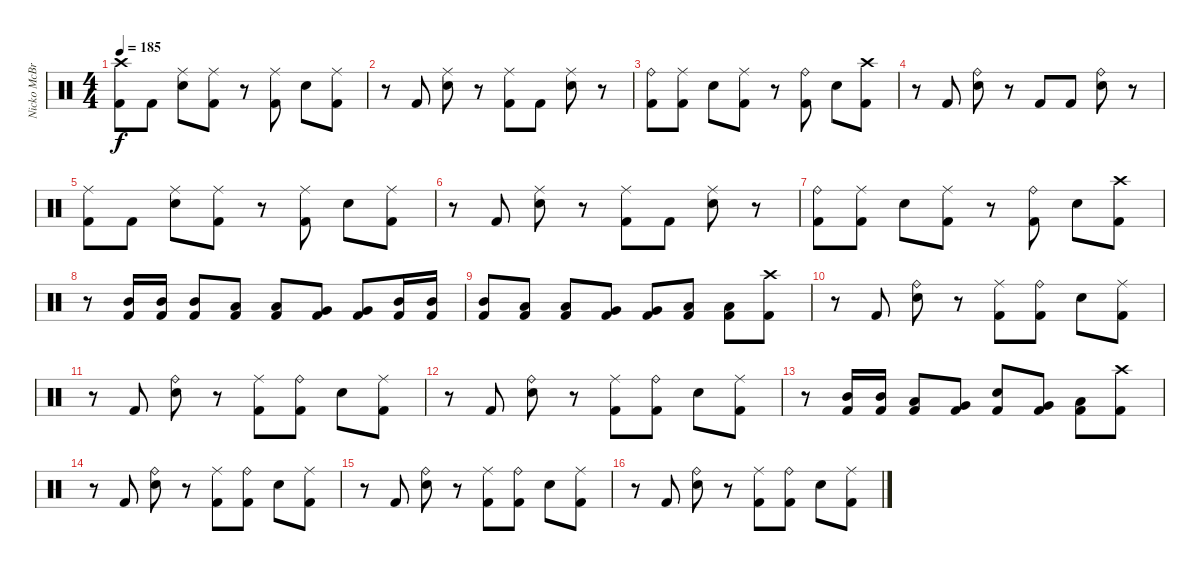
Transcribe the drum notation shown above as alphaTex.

\track ("Nicko McBrain" "Nicko McBr") {instrument percussion}
\staff {score}
\articulation defaults
\ts (4 4)
\tempo 185
\clef neutral
\ks c
("Crash high (hit)" "Kick (hit) 2").8{dy f} "Kick (hit) 2".8 ("Ride (middle)" "Snare (hit) 2").8 ("Ride (middle)" "Kick (hit) 2").8 r.8 ("Ride (middle)" "Kick (hit) 2").8 "Snare (hit) 2".8 ("Ride (middle)" "Kick (hit) 2").8 |
r.8 "Kick (hit) 2".8 ("Ride (middle)" "Snare (hit) 2").8 r.8 ("Ride (middle)" "Kick (hit) 2").8 "Kick (hit) 2".8 ("Ride (middle)" "Snare (hit) 2").8 r.8 |
("Ride (bell)" "Kick (hit) 2").8 ("Ride (middle)" "Kick (hit) 2").8 "Snare (hit) 2".8 ("Ride (middle)" "Kick (hit) 2").8 r.8 ("Ride (bell)" "Kick (hit) 2").8 "Snare (hit) 2".8 ("Crash high (hit)" "Kick (hit) 2").8 |
r.8 "Kick (hit) 2".8 ("Ride (bell)" "Snare (hit) 2").8 r.8 "Kick (hit) 2".8 "Kick (hit) 2".8 ("Ride (bell)" "Snare (hit) 2").8 r.8 |
("Ride (middle)" "Kick (hit) 2").8 "Kick (hit) 2".8 ("Ride (middle)" "Snare (hit) 2").8 ("Ride (middle)" "Kick (hit) 2").8 r.8 ("Ride (middle)" "Kick (hit) 2").8 "Snare (hit) 2".8 ("Ride (middle)" "Kick (hit) 2").8 |
r.8 "Kick (hit) 2".8 ("Ride (middle)" "Snare (hit) 2").8 r.8 ("Ride (middle)" "Kick (hit) 2").8 "Kick (hit) 2".8 ("Ride (middle)" "Snare (hit) 2").8 r.8 |
("Ride (bell)" "Kick (hit) 2").8 ("Ride (middle)" "Kick (hit) 2").8 "Snare (hit) 2".8 ("Ride (middle)" "Kick (hit) 2").8 r.8 ("Ride (bell)" "Kick (hit) 2").8 "Snare (hit) 2".8 ("Crash high (hit)" "Kick (hit) 2").8 |
r.8 ("Mid Tom (hit)" "Kick (hit) 2").16 ("Mid Tom (hit)" "Kick (hit) 2").16 ("Mid Tom (hit)" "Kick (hit) 2").8 ("Low Tom (hit)" "Kick (hit) 2").8 ("Low Tom (hit)" "Kick (hit) 2").8 ("Very Low Tom (hit)" "Kick (hit) 2").8 ("Very Low Tom (hit)" "Kick (hit) 2").8 ("Mid Tom (hit)" "Kick (hit) 2").16 ("Mid Tom (hit)" "Kick (hit) 2").16 |
("Mid Tom (hit)" "Kick (hit) 2").8 ("Low Tom (hit)" "Kick (hit) 2").8 ("Low Tom (hit)" "Kick (hit) 2").8 ("Very Low Tom (hit)" "Kick (hit) 2").8 ("Very Low Tom (hit)" "Kick (hit) 2").8 ("Low Floor Tom (hit)" "Kick (hit) 2").8 ("Low Floor Tom (hit)" "Kick (hit) 2").8 ("Crash high (hit)" "Kick (hit) 2").8 |
r.8 "Kick (hit) 2".8 ("Ride (bell)" "Snare (hit) 2").8 r.8 ("Ride (middle)" "Kick (hit) 2").8 ("Ride (bell)" "Kick (hit) 2").8 "Snare (hit) 2".8 ("Ride (middle)" "Kick (hit) 2").8 |
r.8 "Kick (hit) 2".8 ("Ride (bell)" "Snare (hit) 2").8 r.8 ("Ride (middle)" "Kick (hit) 2").8 ("Ride (bell)" "Kick (hit) 2").8 "Snare (hit) 2".8 ("Ride (middle)" "Kick (hit) 2").8 |
r.8 "Kick (hit) 2".8 ("Ride (bell)" "Snare (hit) 2").8 r.8 ("Ride (middle)" "Kick (hit) 2").8 ("Ride (bell)" "Kick (hit) 2").8 "Snare (hit) 2".8 ("Ride (middle)" "Kick (hit) 2").8 |
r.8 ("Mid Tom (hit)" "Kick (hit) 2").16 ("Mid Tom (hit)" "Kick (hit) 2").16 ("Low Tom (hit)" "Kick (hit) 2").8 ("Very Low Tom (hit)" "Kick (hit) 2").8 ("Snare (hit) 2" "Kick (hit) 2").8 ("Very Low Tom (hit)" "Kick (hit) 2").8 ("Low Floor Tom (hit)" "Kick (hit) 2").8 ("Crash high (hit)" "Kick (hit) 2").8 |
r.8 "Kick (hit) 2".8 ("Ride (bell)" "Snare (hit) 2").8 r.8 ("Ride (middle)" "Kick (hit) 2").8 ("Ride (bell)" "Kick (hit) 2").8 "Snare (hit) 2".8 ("Ride (middle)" "Kick (hit) 2").8 |
r.8 "Kick (hit) 2".8 ("Ride (bell)" "Snare (hit) 2").8 r.8 ("Ride (middle)" "Kick (hit) 2").8 ("Ride (bell)" "Kick (hit) 2").8 "Snare (hit) 2".8 ("Ride (middle)" "Kick (hit) 2").8 |
r.8 "Kick (hit) 2".8 ("Ride (bell)" "Snare (hit) 2").8 r.8 ("Ride (middle)" "Kick (hit) 2").8 ("Ride (bell)" "Kick (hit) 2").8 "Snare (hit) 2".8 ("Ride (middle)" "Kick (hit) 2").8
